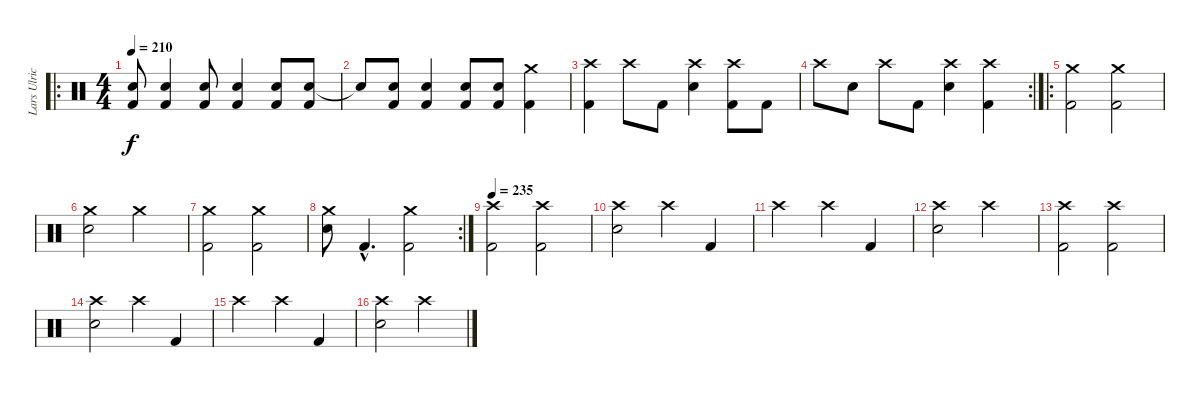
\track ("Lars Ulrich" "Lars Ulric") {instrument percussion}
\staff {score}
\articulation defaults
\ro
\ts (4 4)
\tempo 210
\clef neutral
\ks c
("Snare (hit) 2" "Kick (hit) 2").8{dy f} ("Snare (hit) 2" "Kick (hit) 2").4 ("Snare (hit) 2" "Kick (hit) 2").8 ("Snare (hit) 2" "Kick (hit) 2").4 ("Snare (hit) 2" "Kick (hit) 2").8 ("Snare (hit) 2" "Kick (hit) 2").8 |
"Snare (hit)"{t}.8 ("Snare (hit) 2" "Kick (hit) 2").8 ("Snare (hit) 2" "Kick (hit) 2").4 ("Snare (hit) 2" "Kick (hit) 2").8 ("Snare (hit) 2" "Kick (hit) 2").8 ("Kick (hit) 2" "Crash medium (hit)").4 |
("Kick (hit) 2" "Crash high (hit)").4 "Crash high (hit)".8 "Kick (hit) 2".8 ("Snare (hit) 2" "Crash high (hit)").4 ("Crash high (hit)" "Kick (hit) 2").8 "Kick (hit) 2".8 |
\rc 2 "Crash high (hit)".8 "Snare (hit) 2".8 "Crash high (hit)".8 "Kick (hit) 2".8
("Crash high (hit)" "Snare (hit) 2").4 ("Crash high (hit)" "Kick (hit) 2").4 |
\ro
("Crash medium (hit)" "Kick (hit) 2").2 ("Crash medium (hit)" "Kick (hit) 2").2 |
("Crash medium (hit)" "Snare (hit) 2").2 "Crash medium (hit)".2 |
("Crash medium (hit)" "Kick (hit) 2").2 ("Crash medium (hit)" "Kick (hit) 2").2 |
\rc 2
("Crash medium (hit)" "Snare (hit) 2").8 "Kick (hit) 2"{hac}.4{d} ("Crash medium (hit)" "Kick (hit) 2").2 |
\tempo 235
("Crash high (hit)" "Kick (hit) 2").2 ("Crash high (hit)" "Kick (hit) 2").2 |
("Crash high (hit)" "Snare (hit) 2").2 "Crash high (hit)".4 "Kick (hit) 2".4 |
"Crash high (hit)".2 "Crash high (hit)".4 "Kick (hit) 2".4 |
("Crash high (hit)" "Snare (hit) 2").2 "Crash high (hit)".2 |
("Crash high (hit)" "Kick (hit) 2").2 ("Crash high (hit)" "Kick (hit) 2").2 |
("Crash high (hit)" "Snare (hit) 2").2 "Crash high (hit)".4 "Kick (hit) 2".4 |
"Crash high (hit)".2 "Crash high (hit)".4 "Kick (hit) 2".4 |
("Crash high (hit)" "Snare (hit) 2").2 "Crash high (hit)".2
